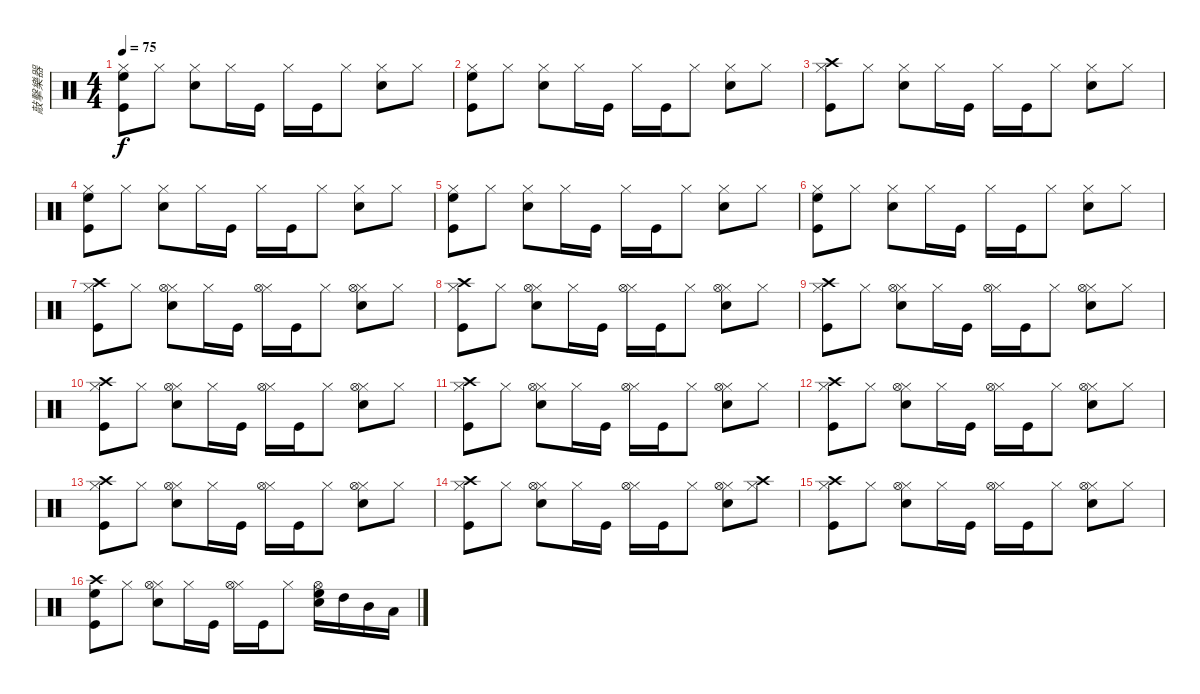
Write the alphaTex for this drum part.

\track ("敲擊樂器" "敲擊樂器") {instrument percussion}
\staff {score}
\articulation defaults
\ts (4 4)
\tempo 75
\clef neutral
\ks c
("Hi-Hat (closed)" "High Floor Tom (hit)" "Kick (hit)").8{dy f} "Hi-Hat (closed)".8 ("Hi-Hat (closed)" "Snare (hit) 2").8 "Hi-Hat (closed)".16 "Kick (hit)".16 "Hi-Hat (closed)".16 "Kick (hit)".16 "Hi-Hat (closed)".8 ("Hi-Hat (closed)" "Snare (hit) 2").8 "Hi-Hat (closed)".8 |
("Hi-Hat (closed)" "High Floor Tom (hit)" "Kick (hit)").8 "Hi-Hat (closed)".8 ("Hi-Hat (closed)" "Snare (hit) 2").8 "Hi-Hat (closed)".16 "Kick (hit)".16 "Hi-Hat (closed)".16 "Kick (hit)".16 "Hi-Hat (closed)".8 ("Hi-Hat (closed)" "Snare (hit) 2").8 "Hi-Hat (closed)".8 |
("Hi-Hat (closed)" "Crash high (hit)" "Kick (hit)").8 "Hi-Hat (closed)".8 ("Hi-Hat (closed)" "Snare (hit) 2").8 "Hi-Hat (closed)".16 "Kick (hit)".16 "Hi-Hat (closed)".16 "Kick (hit)".16 "Hi-Hat (closed)".8 ("Hi-Hat (closed)" "Snare (hit) 2").8 "Hi-Hat (closed)".8 |
("Hi-Hat (closed)" "High Floor Tom (hit)" "Kick (hit)").8 "Hi-Hat (closed)".8 ("Hi-Hat (closed)" "Snare (hit) 2").8 "Hi-Hat (closed)".16 "Kick (hit)".16 "Hi-Hat (closed)".16 "Kick (hit)".16 "Hi-Hat (closed)".8 ("Hi-Hat (closed)" "Snare (hit) 2").8 "Hi-Hat (closed)".8 |
("Hi-Hat (closed)" "High Floor Tom (hit)" "Kick (hit)").8 "Hi-Hat (closed)".8 ("Hi-Hat (closed)" "Snare (hit) 2").8 "Hi-Hat (closed)".16 "Kick (hit)".16 "Hi-Hat (closed)".16 "Kick (hit)".16 "Hi-Hat (closed)".8 ("Hi-Hat (closed)" "Snare (hit) 2").8 "Hi-Hat (closed)".8 |
("Hi-Hat (closed)" "High Floor Tom (hit)" "Kick (hit)").8 "Hi-Hat (closed)".8 ("Hi-Hat (closed)" "Snare (hit) 2").8 "Hi-Hat (closed)".16 "Kick (hit)".16 "Hi-Hat (closed)".16 "Kick (hit)".16 "Hi-Hat (closed)".8 ("Hi-Hat (closed)" "Snare (hit) 2").8 "Hi-Hat (closed)".8 |
("Hi-Hat (closed)" "Crash high (hit)" "Kick (hit)").8 "Hi-Hat (closed)".8 ("Hi-Hat (closed)" "Snare (hit) 2" "Hi-Hat (open)").8 "Hi-Hat (closed)".16 "Kick (hit)".16 ("Hi-Hat (closed)" "Hi-Hat (open)").16 "Kick (hit)".16 "Hi-Hat (closed)".8 ("Hi-Hat (closed)" "Snare (hit) 2" "Hi-Hat (open)").8 "Hi-Hat (closed)".8 |
("Hi-Hat (closed)" "Crash high (hit)" "Kick (hit)").8 "Hi-Hat (closed)".8 ("Hi-Hat (closed)" "Snare (hit) 2" "Hi-Hat (open)").8 "Hi-Hat (closed)".16 "Kick (hit)".16 ("Hi-Hat (closed)" "Hi-Hat (open)").16 "Kick (hit)".16 "Hi-Hat (closed)".8 ("Hi-Hat (closed)" "Snare (hit) 2" "Hi-Hat (open)").8 "Hi-Hat (closed)".8 |
("Hi-Hat (closed)" "Crash high (hit)" "Kick (hit)").8 "Hi-Hat (closed)".8 ("Hi-Hat (closed)" "Snare (hit) 2" "Hi-Hat (open)").8 "Hi-Hat (closed)".16 "Kick (hit)".16 ("Hi-Hat (closed)" "Hi-Hat (open)").16 "Kick (hit)".16 "Hi-Hat (closed)".8 ("Hi-Hat (closed)" "Snare (hit) 2" "Hi-Hat (open)").8 "Hi-Hat (closed)".8 |
("Hi-Hat (closed)" "Crash high (hit)" "Kick (hit)").8 "Hi-Hat (closed)".8 ("Hi-Hat (closed)" "Snare (hit) 2" "Hi-Hat (open)").8 "Hi-Hat (closed)".16 "Kick (hit)".16 ("Hi-Hat (closed)" "Hi-Hat (open)").16 "Kick (hit)".16 "Hi-Hat (closed)".8 ("Hi-Hat (closed)" "Snare (hit) 2" "Hi-Hat (open)").8 "Hi-Hat (closed)".8 |
("Hi-Hat (closed)" "Crash high (hit)" "Kick (hit)").8 "Hi-Hat (closed)".8 ("Hi-Hat (closed)" "Snare (hit) 2" "Hi-Hat (open)").8 "Hi-Hat (closed)".16 "Kick (hit)".16 ("Hi-Hat (closed)" "Hi-Hat (open)").16 "Kick (hit)".16 "Hi-Hat (closed)".8 ("Hi-Hat (closed)" "Snare (hit) 2" "Hi-Hat (open)").8 "Hi-Hat (closed)".8 |
("Hi-Hat (closed)" "Crash high (hit)" "Kick (hit)").8 "Hi-Hat (closed)".8 ("Hi-Hat (closed)" "Snare (hit) 2" "Hi-Hat (open)").8 "Hi-Hat (closed)".16 "Kick (hit)".16 ("Hi-Hat (closed)" "Hi-Hat (open)").16 "Kick (hit)".16 "Hi-Hat (closed)".8 ("Hi-Hat (closed)" "Snare (hit) 2" "Hi-Hat (open)").8 "Hi-Hat (closed)".8 |
("Hi-Hat (closed)" "Crash high (hit)" "Kick (hit)").8 "Hi-Hat (closed)".8 ("Hi-Hat (closed)" "Snare (hit) 2" "Hi-Hat (open)").8 "Hi-Hat (closed)".16 "Kick (hit)".16 ("Hi-Hat (closed)" "Hi-Hat (open)").16 "Kick (hit)".16 "Hi-Hat (closed)".8 ("Hi-Hat (closed)" "Snare (hit) 2" "Hi-Hat (open)").8 "Hi-Hat (closed)".8 |
("Hi-Hat (closed)" "Crash high (hit)" "Kick (hit)").8 "Hi-Hat (closed)".8 ("Hi-Hat (closed)" "Snare (hit) 2" "Hi-Hat (open)").8 "Hi-Hat (closed)".16 "Kick (hit)".16 ("Hi-Hat (closed)" "Hi-Hat (open)").16 "Kick (hit)".16 "Hi-Hat (closed)".8 ("Hi-Hat (closed)" "Snare (hit) 2" "Hi-Hat (open)").8 ("Hi-Hat (closed)" "Crash high (hit)").8 |
("Hi-Hat (closed)" "Crash high (hit)" "Kick (hit)").8 "Hi-Hat (closed)".8 ("Hi-Hat (closed)" "Snare (hit) 2" "Hi-Hat (open)").8 "Hi-Hat (closed)".16 "Kick (hit)".16 ("Hi-Hat (closed)" "Hi-Hat (open)").16 "Kick (hit)".16 "Hi-Hat (closed)".8 ("Hi-Hat (closed)" "Snare (hit) 2" "Hi-Hat (open)").8 "Hi-Hat (closed)".8 |
("High Floor Tom (hit)" "Crash high (hit)" "Kick (hit)").8 "Hi-Hat (closed)".8 ("Hi-Hat (closed)" "Snare (hit) 2" "Hi-Hat (open)").8 "Hi-Hat (closed)".16 "Kick (hit)".16 ("Hi-Hat (closed)" "Hi-Hat (open)").16 "Kick (hit)".16 "Hi-Hat (closed)".8 ("High Floor Tom (hit)" "Snare (hit) 2" "Hi-Hat (open)").16 "High Tom (hit)".16 "Mid Tom (hit)".16 "Low Tom (hit)".16
